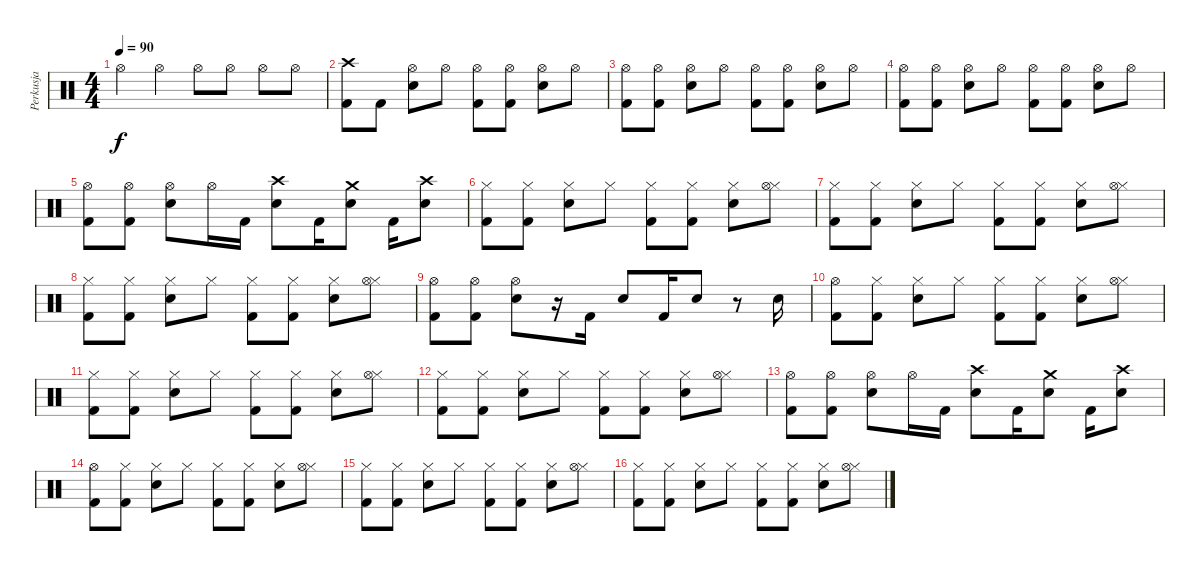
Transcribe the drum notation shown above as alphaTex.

\track ("Perkusja" "Perkusja") {instrument percussion}
\staff {score}
\articulation defaults
\ts (4 4)
\tempo 90
\clef neutral
\ks c "Hi-Hat (open)".4{dy f} "Hi-Hat (open)".4 "Hi-Hat (open)".8 "Hi-Hat (open)".8 "Hi-Hat (open)".8 "Hi-Hat (open)".8
|
("Crash high (hit)" "Kick (hit) 2").8 "Kick (hit) 2".8 ("Hi-Hat (open)" "Electric Snare (hit)").8 "Hi-Hat (open)".8 ("Hi-Hat (open)" "Kick (hit) 2").8 ("Hi-Hat (open)" "Kick (hit) 2").8 ("Hi-Hat (open)" "Electric Snare (hit)").8 "Hi-Hat (open)".8 |
("Hi-Hat (open)" "Kick (hit) 2").8 ("Hi-Hat (open)" "Kick (hit) 2").8 ("Hi-Hat (open)" "Electric Snare (hit)").8 "Hi-Hat (open)".8 ("Hi-Hat (open)" "Kick (hit) 2").8 ("Hi-Hat (open)" "Kick (hit) 2").8 ("Hi-Hat (open)" "Electric Snare (hit)").8 "Hi-Hat (open)".8 |
("Hi-Hat (open)" "Kick (hit) 2").8 ("Hi-Hat (open)" "Kick (hit) 2").8 ("Hi-Hat (open)" "Electric Snare (hit)").8 "Hi-Hat (open)".8 ("Hi-Hat (open)" "Kick (hit) 2").8 ("Hi-Hat (open)" "Kick (hit) 2").8 ("Hi-Hat (open)" "Electric Snare (hit)").8 "Hi-Hat (open)".8 |
("Hi-Hat (open)" "Kick (hit) 2").8 ("Hi-Hat (open)" "Kick (hit) 2").8 ("Hi-Hat (open)" "Electric Snare (hit)").8 "Hi-Hat (open)".16 "Kick (hit) 2".16 ("Crash high (hit)" "Electric Snare (hit)").8 "Kick (hit) 2".16 ("Crash medium (hit)" "Electric Snare (hit)").8 "Kick (hit) 2".16 ("Crash high (hit)" "Electric Snare (hit)").8 |
("Hi-Hat (closed)" "Kick (hit) 2").8 ("Hi-Hat (closed)" "Kick (hit) 2").8 ("Hi-Hat (closed)" "Electric Snare (hit)").8 "Hi-Hat (closed)".8 ("Hi-Hat (closed)" "Kick (hit) 2").8 ("Hi-Hat (closed)" "Kick (hit) 2").8 ("Hi-Hat (closed)" "Electric Snare (hit)").8 ("Hi-Hat (closed)" "Hi-Hat (open)").8 |
("Hi-Hat (closed)" "Kick (hit) 2").8 ("Hi-Hat (closed)" "Kick (hit) 2").8 ("Hi-Hat (closed)" "Electric Snare (hit)").8 "Hi-Hat (closed)".8 ("Hi-Hat (closed)" "Kick (hit) 2").8 ("Hi-Hat (closed)" "Kick (hit) 2").8 ("Hi-Hat (closed)" "Electric Snare (hit)").8 ("Hi-Hat (closed)" "Hi-Hat (open)").8 |
("Hi-Hat (closed)" "Kick (hit) 2").8 ("Hi-Hat (closed)" "Kick (hit) 2").8 ("Hi-Hat (closed)" "Electric Snare (hit)").8 "Hi-Hat (closed)".8 ("Hi-Hat (closed)" "Kick (hit) 2").8 ("Hi-Hat (closed)" "Kick (hit) 2").8 ("Hi-Hat (closed)" "Electric Snare (hit)").8 ("Hi-Hat (closed)" "Hi-Hat (open)").8 |
("Hi-Hat (open)" "Kick (hit) 2").8 ("Hi-Hat (open)" "Kick (hit) 2").8 ("Hi-Hat (open)" "Electric Snare (hit)").8 r.16 "Kick (hit) 2".16 "Electric Snare (hit)".8 "Kick (hit) 2".16 "Electric Snare (hit)".8 r.8 "Electric Snare (hit)".16 |
("Hi-Hat (open)" "Kick (hit) 2").8 ("Hi-Hat (closed)" "Kick (hit) 2").8 ("Hi-Hat (closed)" "Electric Snare (hit)").8 "Hi-Hat (closed)".8 ("Hi-Hat (closed)" "Kick (hit) 2").8 ("Hi-Hat (closed)" "Kick (hit) 2").8 ("Hi-Hat (closed)" "Electric Snare (hit)").8 ("Hi-Hat (closed)" "Hi-Hat (open)").8 |
("Hi-Hat (closed)" "Kick (hit) 2").8 ("Hi-Hat (closed)" "Kick (hit) 2").8 ("Hi-Hat (closed)" "Electric Snare (hit)").8 "Hi-Hat (closed)".8 ("Hi-Hat (closed)" "Kick (hit) 2").8 ("Hi-Hat (closed)" "Kick (hit) 2").8 ("Hi-Hat (closed)" "Electric Snare (hit)").8 ("Hi-Hat (closed)" "Hi-Hat (open)").8 |
("Hi-Hat (closed)" "Kick (hit) 2").8 ("Hi-Hat (closed)" "Kick (hit) 2").8 ("Hi-Hat (closed)" "Electric Snare (hit)").8 "Hi-Hat (closed)".8 ("Hi-Hat (closed)" "Kick (hit) 2").8 ("Hi-Hat (closed)" "Kick (hit) 2").8 ("Hi-Hat (closed)" "Electric Snare (hit)").8 ("Hi-Hat (closed)" "Hi-Hat (open)").8 |
("Hi-Hat (open)" "Kick (hit) 2").8 ("Hi-Hat (open)" "Kick (hit) 2").8 ("Hi-Hat (open)" "Electric Snare (hit)").8 "Hi-Hat (open)".16 "Kick (hit) 2".16 ("Crash high (hit)" "Electric Snare (hit)").8 "Kick (hit) 2".16 ("Crash medium (hit)" "Electric Snare (hit)").8 "Kick (hit) 2".16 ("Crash high (hit)" "Electric Snare (hit)").8 |
("Hi-Hat (open)" "Kick (hit) 2").8 ("Hi-Hat (closed)" "Kick (hit) 2").8 ("Hi-Hat (closed)" "Electric Snare (hit)").8 "Hi-Hat (closed)".8 ("Hi-Hat (closed)" "Kick (hit) 2").8 ("Hi-Hat (closed)" "Kick (hit) 2").8 ("Hi-Hat (closed)" "Electric Snare (hit)").8 ("Hi-Hat (closed)" "Hi-Hat (open)").8 |
("Hi-Hat (closed)" "Kick (hit) 2").8 ("Hi-Hat (closed)" "Kick (hit) 2").8 ("Hi-Hat (closed)" "Electric Snare (hit)").8 "Hi-Hat (closed)".8 ("Hi-Hat (closed)" "Kick (hit) 2").8 ("Hi-Hat (closed)" "Kick (hit) 2").8 ("Hi-Hat (closed)" "Electric Snare (hit)").8 ("Hi-Hat (closed)" "Hi-Hat (open)").8 |
("Hi-Hat (closed)" "Kick (hit) 2").8 ("Hi-Hat (closed)" "Kick (hit) 2").8 ("Hi-Hat (closed)" "Electric Snare (hit)").8 "Hi-Hat (closed)".8 ("Hi-Hat (closed)" "Kick (hit) 2").8 ("Hi-Hat (closed)" "Kick (hit) 2").8 ("Hi-Hat (closed)" "Electric Snare (hit)").8 ("Hi-Hat (closed)" "Hi-Hat (open)").8
